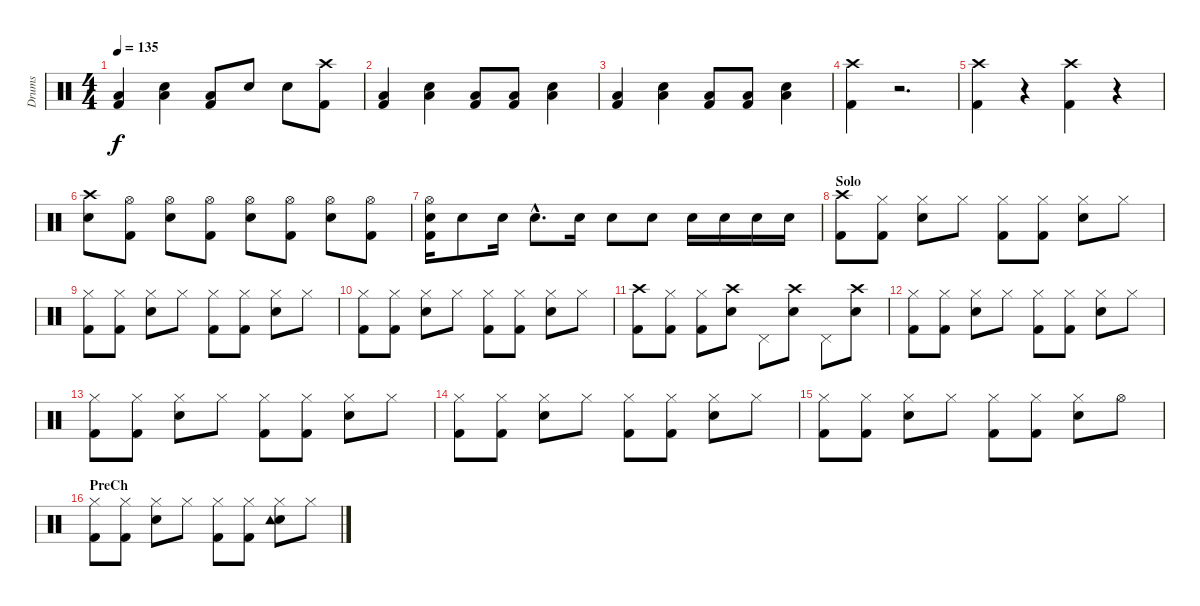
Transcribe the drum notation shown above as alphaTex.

\track ("Drums" "Drums") {instrument percussion}
\staff {score}
\articulation defaults
\ts (4 4)
\tempo 135
\clef neutral
\ks c
("Low Tom (hit)" "Kick (hit) 2").4{dy f} ("Snare (hit) 2" "Low Tom (hit)").4 ("Low Tom (hit)" "Kick (hit) 2").8 "Snare (hit) 2".8 "Snare (hit) 2".8 ("Crash high (hit)" "Kick (hit) 2").8 |
("Low Tom (hit)" "Kick (hit) 2").4 ("Snare (hit) 2" "Low Tom (hit)").4 ("Low Tom (hit)" "Kick (hit) 2").8 ("Low Tom (hit)" "Kick (hit) 2").8 ("Snare (hit) 2" "Low Tom (hit)").4 |
("Low Tom (hit)" "Kick (hit) 2").4 ("Snare (hit) 2" "Low Tom (hit)").4 ("Low Tom (hit)" "Kick (hit) 2").8 ("Low Tom (hit)" "Kick (hit) 2").8 ("Snare (hit) 2" "Low Tom (hit)").4 |
("Crash high (hit)" "Kick (hit) 2").4 r.2{d} |
("Crash high (hit)" "Kick (hit) 2").4 r.4 ("Crash high (hit)" "Kick (hit) 2").4 r.4 |
("Crash high (hit)" "Snare (hit) 2").8 ("Hi-Hat (open)" "Kick (hit) 2").8 ("Hi-Hat (open)" "Snare (hit) 2").8 ("Hi-Hat (open)" "Kick (hit) 2").8 ("Hi-Hat (open)" "Snare (hit) 2").8 ("Hi-Hat (open)" "Kick (hit) 2").8 ("Hi-Hat (open)" "Snare (hit) 2").8 ("Hi-Hat (open)" "Kick (hit) 2").8 |
("Hi-Hat (open)" "Snare (hit) 2" "Kick (hit) 2").16 "Snare (hit) 2".8 "Snare (hit) 2".16 "Snare (hit) 2"{hac}.8{d} "Snare (hit) 2".16 "Snare (hit) 2".8 "Snare (hit) 2".8 "Snare (hit) 2".16 "Snare (hit) 2".16 "Snare (hit) 2".16 "Snare (hit) 2".16 |
\section ("" "Solo")
("Crash high (hit)" "Kick (hit) 2").8 ("Hi-Hat (closed)" "Kick (hit) 2").8 ("Hi-Hat (closed)" "Snare (hit) 2").8 "Hi-Hat (closed)".8 ("Hi-Hat (closed)" "Kick (hit) 2").8 ("Hi-Hat (closed)" "Kick (hit) 2").8 ("Hi-Hat (closed)" "Snare (hit) 2").8 "Hi-Hat (closed)".8 |
("Hi-Hat (closed)" "Kick (hit) 2").8 ("Hi-Hat (closed)" "Kick (hit) 2").8 ("Hi-Hat (closed)" "Snare (hit) 2").8 "Hi-Hat (closed)".8 ("Hi-Hat (closed)" "Kick (hit) 2").8 ("Hi-Hat (closed)" "Kick (hit) 2").8 ("Hi-Hat (closed)" "Snare (hit) 2").8 "Hi-Hat (closed)".8 |
("Hi-Hat (closed)" "Kick (hit) 2").8 ("Hi-Hat (closed)" "Kick (hit) 2").8 ("Hi-Hat (closed)" "Snare (hit) 2").8 "Hi-Hat (closed)".8 ("Hi-Hat (closed)" "Kick (hit) 2").8 ("Hi-Hat (closed)" "Kick (hit) 2").8 ("Hi-Hat (closed)" "Snare (hit) 2").8 "Hi-Hat (closed)".8 |
("Crash high (hit)" "Kick (hit) 2").8 ("Hi-Hat (closed)" "Kick (hit) 2").8 ("Hi-Hat (closed)" "Kick (hit) 2").8 ("Crash high (hit)" "Snare (hit) 2").8 "Pedal Hi-Hat (hit)".8 ("Crash high (hit)" "Snare (hit) 2").8 "Pedal Hi-Hat (hit)".8 ("Crash high (hit)" "Snare (hit) 2").8 |
("Hi-Hat (closed)" "Kick (hit) 2").8 ("Hi-Hat (closed)" "Kick (hit) 2").8 ("Hi-Hat (closed)" "Snare (hit) 2").8 "Hi-Hat (closed)".8 ("Hi-Hat (closed)" "Kick (hit) 2").8 ("Hi-Hat (closed)" "Kick (hit) 2").8 ("Hi-Hat (closed)" "Snare (hit) 2").8 "Hi-Hat (closed)".8 |
("Hi-Hat (closed)" "Kick (hit) 2").8 ("Hi-Hat (closed)" "Kick (hit) 2").8 ("Hi-Hat (closed)" "Snare (hit) 2").8 "Hi-Hat (closed)".8 ("Hi-Hat (closed)" "Kick (hit) 2").8 ("Hi-Hat (closed)" "Kick (hit) 2").8 ("Hi-Hat (closed)" "Snare (hit) 2").8 "Hi-Hat (closed)".8 |
("Hi-Hat (closed)" "Kick (hit) 2").8 ("Hi-Hat (closed)" "Kick (hit) 2").8 ("Hi-Hat (closed)" "Snare (hit) 2").8 "Hi-Hat (closed)".8 ("Hi-Hat (closed)" "Kick (hit) 2").8 ("Hi-Hat (closed)" "Kick (hit) 2").8 ("Hi-Hat (closed)" "Snare (hit) 2").8 "Hi-Hat (closed)".8 |
("Hi-Hat (closed)" "Kick (hit) 2").8 ("Hi-Hat (closed)" "Kick (hit) 2").8 ("Hi-Hat (closed)" "Snare (hit) 2").8 "Hi-Hat (closed)".8 ("Hi-Hat (closed)" "Kick (hit) 2").8 ("Hi-Hat (closed)" "Kick (hit) 2").8 ("Hi-Hat (closed)" "Snare (hit) 2").8 "Hi-Hat (open)".8 |
\section ("" "PreCh")
("Hi-Hat (closed)" "Kick (hit) 2").8 ("Hi-Hat (closed)" "Kick (hit) 2").8 ("Hi-Hat (closed)" "Snare (hit) 2").8 "Hi-Hat (closed)".8 ("Hi-Hat (closed)" "Kick (hit) 2").8 ("Hi-Hat (closed)" "Kick (hit) 2").8 ("Hi-Hat (closed)" "Snare (hit) 2" "Tambourine (hit)").8 "Hi-Hat (closed)".8
